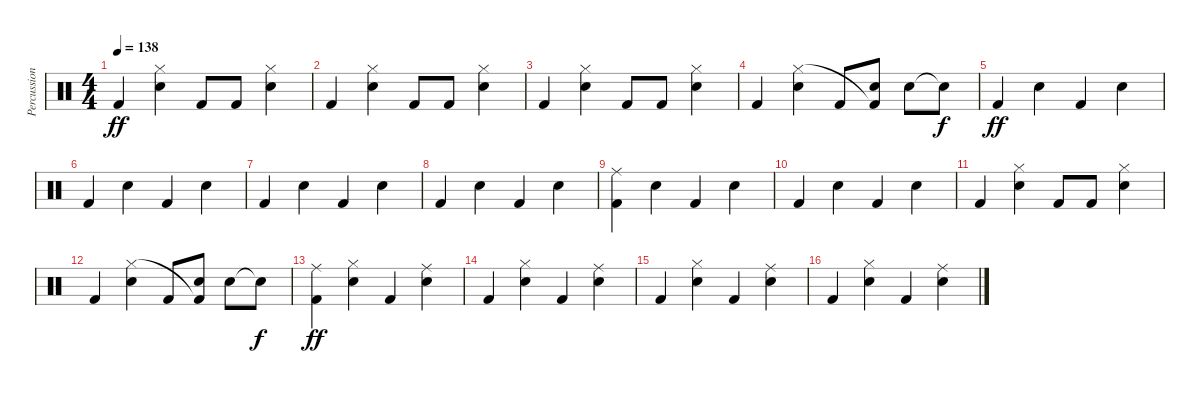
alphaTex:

\track ("Percussion" "Percussion") {instrument percussion}
\staff {score}
\articulation defaults
\ts (4 4)
\tempo 138
\clef neutral
\ks c "Kick (hit) 2".4{dy ff}
("Snare (hit) 2" "Hi-Hat (closed)").4 "Kick (hit) 2".8 "Kick (hit) 2".8 ("Snare (hit) 2" "Hi-Hat (closed)").4 |
"Kick (hit) 2".4 ("Snare (hit) 2" "Hi-Hat (closed)").4 "Kick (hit) 2".8 "Kick (hit) 2".8 ("Snare (hit) 2" "Hi-Hat (closed)").4 |
"Kick (hit) 2".4 ("Snare (hit) 2" "Hi-Hat (closed)").4 "Kick (hit) 2".8 "Kick (hit) 2".8 ("Snare (hit) 2" "Hi-Hat (closed)").4 |
"Kick (hit) 2".4 ("Snare (hit) 2" "Hi-Hat (closed)").4 "Kick (hit) 2".8 ("Electric Snare (hit)" "Kick (hit) 2"{t}).8 "Electric Snare (hit)".8 "Electric Snare (hit)"{t}.8{dy f} |
"Kick (hit) 2".4{dy ff} "Snare (hit) 2".4 "Kick (hit) 2".4 "Snare (hit) 2".4 |
"Kick (hit) 2".4 "Snare (hit) 2".4 "Kick (hit) 2".4 "Snare (hit) 2".4 |
"Kick (hit) 2".4 "Snare (hit) 2".4 "Kick (hit) 2".4 "Snare (hit) 2".4 |
"Kick (hit) 2".4 "Snare (hit) 2".4 "Kick (hit) 2".4 "Snare (hit) 2".4 |
("Ride (middle)" "Kick (hit) 2").4 "Snare (hit) 2".4 "Kick (hit) 2".4 "Snare (hit) 2".4 |
"Kick (hit) 2".4 "Snare (hit) 2".4 "Kick (hit) 2".4 "Snare (hit) 2".4 |
"Kick (hit) 2".4 ("Snare (hit) 2" "Hi-Hat (closed)").4 "Kick (hit) 2".8 "Kick (hit) 2".8 ("Snare (hit) 2" "Hi-Hat (closed)").4 |
"Kick (hit) 2".4 ("Snare (hit) 2" "Hi-Hat (closed)").4 "Kick (hit) 2".8 ("Electric Snare (hit)" "Kick (hit) 2"{t}).8 "Electric Snare (hit)".8 "Electric Snare (hit)"{t}.8{dy f} |
("Ride (middle)" "Kick (hit) 2").4{dy ff} ("Snare (hit) 2" "Hi-Hat (closed)").4 "Kick (hit) 2".4 ("Ride (middle)" "Snare (hit) 2").4 |
"Kick (hit) 2".4 ("Snare (hit) 2" "Hi-Hat (closed)").4 "Kick (hit) 2".4 ("Ride (middle)" "Snare (hit) 2").4 |
"Kick (hit) 2".4 ("Snare (hit) 2" "Hi-Hat (closed)").4 "Kick (hit) 2".4 ("Ride (middle)" "Snare (hit) 2").4 |
"Kick (hit) 2".4 ("Snare (hit) 2" "Hi-Hat (closed)").4 "Kick (hit) 2".4 ("Ride (middle)" "Snare (hit) 2").4
